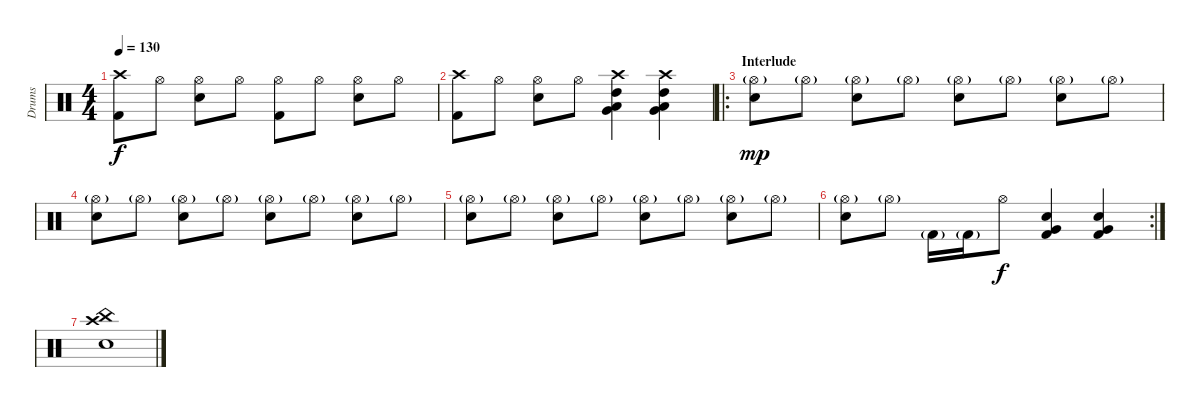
\track ("Drums" "Drums") {instrument percussion}
\staff {score}
\articulation defaults
\ts (4 4)
\tempo 130
\clef neutral
\ks c
("Crash high (hit)" "Kick (hit) 2").8{dy f} "Hi-Hat (open)".8 ("Hi-Hat (open)" "Electric Snare (hit)").8 "Hi-Hat (open)".8 ("Hi-Hat (open)" "Kick (hit) 2").8 "Hi-Hat (open)".8 ("Hi-Hat (open)" "Electric Snare (hit)").8 "Hi-Hat (open)".8 |
("Crash high (hit)" "Kick (hit) 2").8 "Hi-Hat (open)".8 ("Hi-Hat (open)" "Electric Snare (hit)").8 "Hi-Hat (open)".8 ("Crash high (hit)" "Very Low Tom (hit)" "High Tom (hit)" "Low Tom (hit)").4 ("Crash high (hit)" "Very Low Tom (hit)" "High Tom (hit)" "Low Tom (hit)").4 |
\ro
\section ("" "Interlude")
("Hi-Hat (open)"{g} "Snare (hit) 2").8{dy mp} "Hi-Hat (open)"{g}.8 ("Hi-Hat (open)"{g} "Snare (hit) 2").8 "Hi-Hat (open)"{g}.8 ("Hi-Hat (open)"{g} "Snare (hit) 2").8 "Hi-Hat (open)"{g}.8 ("Hi-Hat (open)"{g} "Snare (hit) 2").8 "Hi-Hat (open)"{g}.8 |
("Hi-Hat (open)"{g} "Snare (hit) 2").8 "Hi-Hat (open)"{g}.8 ("Hi-Hat (open)"{g} "Snare (hit) 2").8 "Hi-Hat (open)"{g}.8 ("Hi-Hat (open)"{g} "Snare (hit) 2").8 "Hi-Hat (open)"{g}.8 ("Hi-Hat (open)"{g} "Snare (hit) 2").8 "Hi-Hat (open)"{g}.8 |
("Hi-Hat (open)"{g} "Snare (hit) 2").8 "Hi-Hat (open)"{g}.8 ("Hi-Hat (open)"{g} "Snare (hit) 2").8 "Hi-Hat (open)"{g}.8 ("Hi-Hat (open)"{g} "Snare (hit) 2").8 "Hi-Hat (open)"{g}.8 ("Hi-Hat (open)"{g} "Snare (hit) 2").8 "Hi-Hat (open)"{g}.8 |
\rc 2
("Hi-Hat (open)"{g} "Snare (hit) 2").8 "Hi-Hat (open)"{g}.8 "Kick (hit) 2"{g}.16 "Kick (hit) 2"{g}.16 "Hi-Hat (open)".8{dy f} ("Snare (hit) 2" "Kick (hit) 2" "Very Low Tom (hit)").4 ("Snare (hit) 2" "Kick (hit) 2" "Very Low Tom (hit)").4 |
("China (hit)" "Crash high (hit)" "Snare (hit) 2").1
